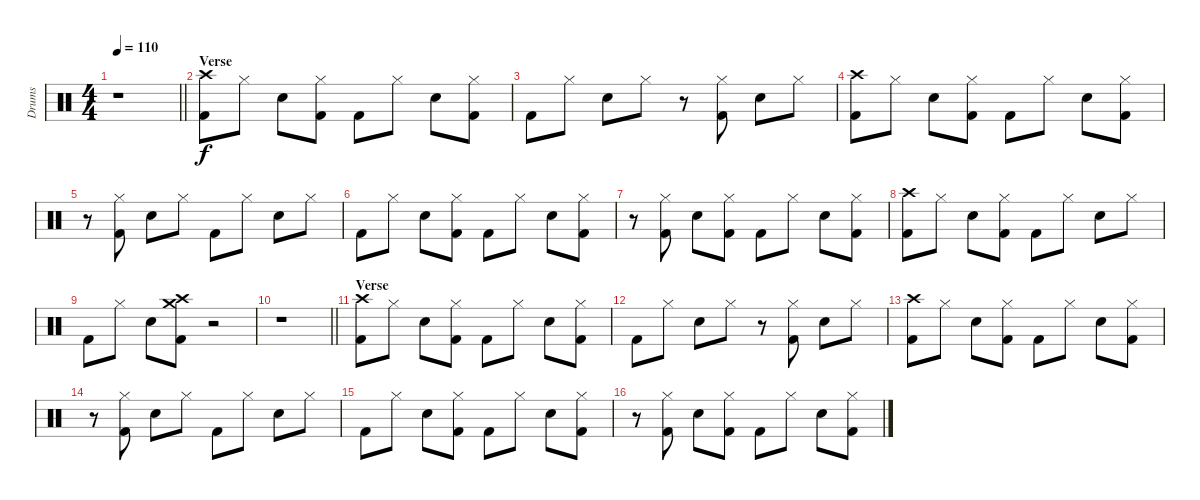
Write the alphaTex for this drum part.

\track ("Drums" "Drums") {instrument percussion}
\staff {score}
\articulation defaults
\ts (4 4)
\tempo 110
\clef neutral
\barLineRight lightlight
\ks c
r.1{dy f} |
\section ("" "Verse")
("Kick (hit) 2" "Crash high (hit)").8 "Hi-Hat (closed)".8 "Snare (hit) 2".8 ("Kick (hit) 2" "Hi-Hat (closed)").8 "Kick (hit) 2".8 "Hi-Hat (closed)".8 "Snare (hit) 2".8 ("Kick (hit) 2" "Hi-Hat (closed)").8 |
"Kick (hit) 2".8 "Hi-Hat (closed)".8 "Snare (hit) 2".8 "Hi-Hat (closed)".8 r.8 ("Kick (hit) 2" "Hi-Hat (closed)").8 "Snare (hit) 2".8 "Hi-Hat (closed)".8 |
("Kick (hit) 2" "Crash high (hit)").8 "Hi-Hat (closed)".8 "Snare (hit) 2".8 ("Kick (hit) 2" "Hi-Hat (closed)").8 "Kick (hit) 2".8 "Hi-Hat (closed)".8 "Snare (hit) 2".8 ("Kick (hit) 2" "Hi-Hat (closed)").8 |
r.8 ("Kick (hit) 2" "Hi-Hat (closed)").8 "Snare (hit) 2".8 "Hi-Hat (closed)".8 "Kick (hit) 2".8 "Hi-Hat (closed)".8 "Snare (hit) 2".8 "Hi-Hat (closed)".8 |
"Kick (hit) 2".8 "Hi-Hat (closed)".8 "Snare (hit) 2".8 ("Kick (hit) 2" "Hi-Hat (closed)").8 "Kick (hit) 2".8 "Hi-Hat (closed)".8 "Snare (hit) 2".8 ("Kick (hit) 2" "Hi-Hat (closed)").8 |
r.8 ("Kick (hit) 2" "Hi-Hat (closed)").8 "Snare (hit) 2".8 ("Kick (hit) 2" "Hi-Hat (closed)").8 "Kick (hit) 2".8 "Hi-Hat (closed)".8 "Snare (hit) 2".8 ("Kick (hit) 2" "Hi-Hat (closed)").8 |
("Kick (hit) 2" "Crash high (hit)").8 "Hi-Hat (closed)".8 "Snare (hit) 2".8 ("Kick (hit) 2" "Hi-Hat (closed)").8 "Kick (hit) 2".8 "Hi-Hat (closed)".8 "Snare (hit) 2".8 "Hi-Hat (closed)".8 |
"Kick (hit) 2".8 "Hi-Hat (closed)".8 "Snare (hit) 2".8 ("Kick (hit) 2" "Crash high (hit)" "Crash medium (hit)").8 r.2 |
\barLineRight lightlight
r.1 |
\section ("" "Verse")
("Kick (hit) 2" "Crash high (hit)").8 "Hi-Hat (closed)".8 "Snare (hit) 2".8 ("Kick (hit) 2" "Hi-Hat (closed)").8 "Kick (hit) 2".8 "Hi-Hat (closed)".8 "Snare (hit) 2".8 ("Kick (hit) 2" "Hi-Hat (closed)").8 |
"Kick (hit) 2".8 "Hi-Hat (closed)".8 "Snare (hit) 2".8 "Hi-Hat (closed)".8 r.8 ("Kick (hit) 2" "Hi-Hat (closed)").8 "Snare (hit) 2".8 "Hi-Hat (closed)".8 |
("Kick (hit) 2" "Crash high (hit)").8 "Hi-Hat (closed)".8 "Snare (hit) 2".8 ("Kick (hit) 2" "Hi-Hat (closed)").8 "Kick (hit) 2".8 "Hi-Hat (closed)".8 "Snare (hit) 2".8 ("Kick (hit) 2" "Hi-Hat (closed)").8 |
r.8 ("Kick (hit) 2" "Hi-Hat (closed)").8 "Snare (hit) 2".8 "Hi-Hat (closed)".8 "Kick (hit) 2".8 "Hi-Hat (closed)".8 "Snare (hit) 2".8 "Hi-Hat (closed)".8 |
"Kick (hit) 2".8 "Hi-Hat (closed)".8 "Snare (hit) 2".8 ("Kick (hit) 2" "Hi-Hat (closed)").8 "Kick (hit) 2".8 "Hi-Hat (closed)".8 "Snare (hit) 2".8 ("Kick (hit) 2" "Hi-Hat (closed)").8 |
r.8 ("Kick (hit) 2" "Hi-Hat (closed)").8 "Snare (hit) 2".8 ("Kick (hit) 2" "Hi-Hat (closed)").8 "Kick (hit) 2".8 "Hi-Hat (closed)".8 "Snare (hit) 2".8 ("Kick (hit) 2" "Hi-Hat (closed)").8
